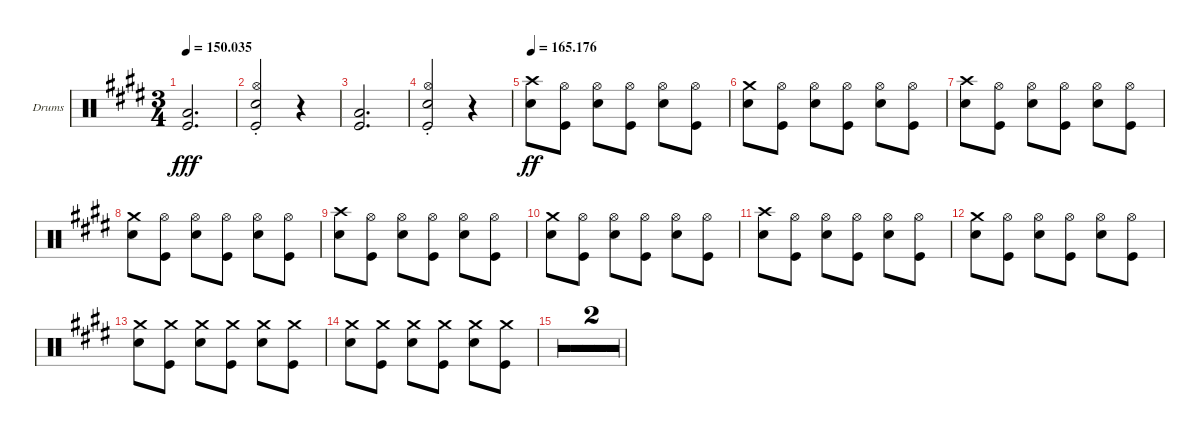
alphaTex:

\defaultSystemsLayout 4
\bracketExtendMode groupsimilarinstruments
\firstSystemTrackNameOrientation horizontal
\otherSystemsTrackNameOrientation horizontal
\track ("Dave Grohl (Drums)" "Drums") {multiBarRest instrument percussion}
\staff {score}
\articulation defaults
\ts (3 4)
\tempo
150.035
\accidentals auto
\clef neutral
\ottava regular
\simile none
\ks e
("Low Tom (hit)" "Kick (hit)").2{d dy fff} |
("Kick (hit)"{st} "Hi-Hat (open)"{st} "Snare (hit) 2"{st}).2 r.4 |
("Low Tom (hit)" "Kick (hit)").2{d} |
("Kick (hit)"{st} "Hi-Hat (open)"{st} "Snare (hit) 2"{st}).2 r.4 |
\tempo
165.176 ("Snare (hit) 2" "Crash high (hit)").8{dy ff} ("Kick (hit)" "Hi-Hat (open)").8 ("Snare (hit) 2" "Hi-Hat (open)").8 ("Kick (hit)" "Hi-Hat (open)").8 ("Snare (hit) 2" "Hi-Hat (open)").8 ("Kick (hit)" "Hi-Hat (open)").8 |
("Snare (hit) 2" "Crash medium (hit)").8 ("Kick (hit)" "Hi-Hat (open)").8 ("Snare (hit) 2" "Hi-Hat (open)").8 ("Kick (hit)" "Hi-Hat (open)").8 ("Snare (hit) 2" "Hi-Hat (open)").8 ("Kick (hit)" "Hi-Hat (open)").8 |
("Snare (hit) 2" "Crash high (hit)").8 ("Kick (hit)" "Hi-Hat (open)").8 ("Snare (hit) 2" "Hi-Hat (open)").8 ("Kick (hit)" "Hi-Hat (open)").8 ("Snare (hit) 2" "Hi-Hat (open)").8 ("Kick (hit)" "Hi-Hat (open)").8 |
("Snare (hit) 2" "Crash medium (hit)").8 ("Kick (hit)" "Hi-Hat (open)").8 ("Snare (hit) 2" "Hi-Hat (open)").8 ("Kick (hit)" "Hi-Hat (open)").8 ("Snare (hit) 2" "Hi-Hat (open)").8 ("Kick (hit)" "Hi-Hat (open)").8 |
("Snare (hit) 2" "Crash high (hit)").8 ("Kick (hit)" "Hi-Hat (open)").8 ("Snare (hit) 2" "Hi-Hat (open)").8 ("Kick (hit)" "Hi-Hat (open)").8 ("Snare (hit) 2" "Hi-Hat (open)").8 ("Kick (hit)" "Hi-Hat (open)").8 |
("Snare (hit) 2" "Crash medium (hit)").8 ("Kick (hit)" "Hi-Hat (open)").8 ("Snare (hit) 2" "Hi-Hat (open)").8 ("Kick (hit)" "Hi-Hat (open)").8 ("Snare (hit) 2" "Hi-Hat (open)").8 ("Kick (hit)" "Hi-Hat (open)").8 |
("Snare (hit) 2" "Crash high (hit)").8 ("Kick (hit)" "Hi-Hat (open)").8 ("Snare (hit) 2" "Hi-Hat (open)").8 ("Kick (hit)" "Hi-Hat (open)").8 ("Snare (hit) 2" "Hi-Hat (open)").8 ("Kick (hit)" "Hi-Hat (open)").8 |
("Snare (hit) 2" "Crash medium (hit)").8 ("Kick (hit)" "Hi-Hat (open)").8 ("Snare (hit) 2" "Hi-Hat (open)").8 ("Kick (hit)" "Hi-Hat (open)").8 ("Snare (hit) 2" "Hi-Hat (open)").8 ("Kick (hit)" "Hi-Hat (open)").8 |
("Snare (hit) 2" "Crash medium (hit)").8 ("Kick (hit)" "Crash medium (hit)").8 ("Snare (hit) 2" "Crash medium (hit)").8 ("Kick (hit)" "Crash medium (hit)").8 ("Snare (hit) 2" "Crash medium (hit)").8 ("Kick (hit)" "Crash medium (hit)").8 |
("Snare (hit) 2" "Crash medium (hit)").8 ("Kick (hit)" "Crash medium (hit)").8 ("Snare (hit) 2" "Crash medium (hit)").8 ("Kick (hit)" "Crash medium (hit)").8 ("Snare (hit) 2" "Crash medium (hit)").8 ("Kick (hit)" "Crash medium (hit)").8 |
r.2{d} |
r.2{d}
